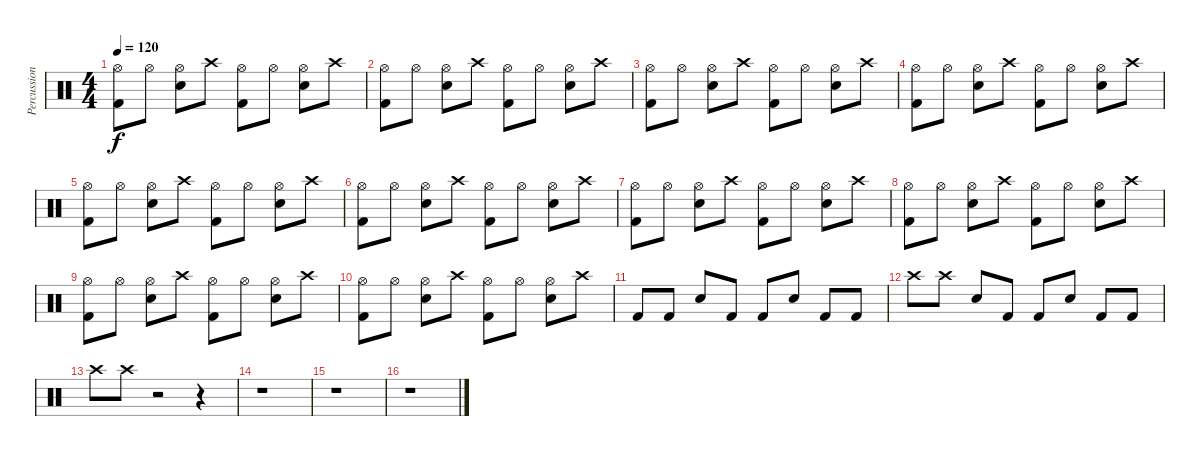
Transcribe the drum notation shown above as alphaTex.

\track ("Percussion" "Percussion") {instrument percussion}
\staff {score}
\articulation defaults
\ts (4 4)
\tempo 120
\clef neutral
\ks c
("Hi-Hat (open)" "Kick (hit) 2").8{dy f} "Hi-Hat (open)".8 ("Hi-Hat (open)" "Electric Snare (hit)").8 "Crash high (hit)".8 ("Hi-Hat (open)" "Kick (hit) 2").8 "Hi-Hat (open)".8 ("Hi-Hat (open)" "Electric Snare (hit)").8 "Crash high (hit)".8 |
("Hi-Hat (open)" "Kick (hit) 2").8 "Hi-Hat (open)".8 ("Hi-Hat (open)" "Electric Snare (hit)").8 "Crash high (hit)".8 ("Hi-Hat (open)" "Kick (hit) 2").8 "Hi-Hat (open)".8 ("Hi-Hat (open)" "Electric Snare (hit)").8 "Crash high (hit)".8 |
("Hi-Hat (open)" "Kick (hit) 2").8 "Hi-Hat (open)".8 ("Hi-Hat (open)" "Electric Snare (hit)").8 "Crash high (hit)".8 ("Hi-Hat (open)" "Kick (hit) 2").8 "Hi-Hat (open)".8 ("Hi-Hat (open)" "Electric Snare (hit)").8 "Crash high (hit)".8 |
("Hi-Hat (open)" "Kick (hit) 2").8 "Hi-Hat (open)".8 ("Hi-Hat (open)" "Electric Snare (hit)").8 "Crash high (hit)".8 ("Hi-Hat (open)" "Kick (hit) 2").8 "Hi-Hat (open)".8 ("Hi-Hat (open)" "Electric Snare (hit)").8 "Crash high (hit)".8 |
("Hi-Hat (open)" "Kick (hit) 2").8 "Hi-Hat (open)".8 ("Hi-Hat (open)" "Electric Snare (hit)").8 "Crash high (hit)".8 ("Hi-Hat (open)" "Kick (hit) 2").8 "Hi-Hat (open)".8 ("Hi-Hat (open)" "Electric Snare (hit)").8 "Crash high (hit)".8 |
("Hi-Hat (open)" "Kick (hit) 2").8 "Hi-Hat (open)".8 ("Hi-Hat (open)" "Electric Snare (hit)").8 "Crash high (hit)".8 ("Hi-Hat (open)" "Kick (hit) 2").8 "Hi-Hat (open)".8 ("Hi-Hat (open)" "Electric Snare (hit)").8 "Crash high (hit)".8 |
("Hi-Hat (open)" "Kick (hit) 2").8 "Hi-Hat (open)".8 ("Hi-Hat (open)" "Electric Snare (hit)").8 "Crash high (hit)".8 ("Hi-Hat (open)" "Kick (hit) 2").8 "Hi-Hat (open)".8 ("Hi-Hat (open)" "Electric Snare (hit)").8 "Crash high (hit)".8 |
("Hi-Hat (open)" "Kick (hit) 2").8 "Hi-Hat (open)".8 ("Hi-Hat (open)" "Electric Snare (hit)").8 "Crash high (hit)".8 ("Hi-Hat (open)" "Kick (hit) 2").8 "Hi-Hat (open)".8 ("Hi-Hat (open)" "Electric Snare (hit)").8 "Crash high (hit)".8 |
("Hi-Hat (open)" "Kick (hit) 2").8 "Hi-Hat (open)".8 ("Hi-Hat (open)" "Electric Snare (hit)").8 "Crash high (hit)".8 ("Hi-Hat (open)" "Kick (hit) 2").8 "Hi-Hat (open)".8 ("Hi-Hat (open)" "Electric Snare (hit)").8 "Crash high (hit)".8 |
("Hi-Hat (open)" "Kick (hit) 2").8 "Hi-Hat (open)".8 ("Hi-Hat (open)" "Electric Snare (hit)").8 "Crash high (hit)".8 ("Hi-Hat (open)" "Kick (hit) 2").8 "Hi-Hat (open)".8 ("Hi-Hat (open)" "Electric Snare (hit)").8 "Crash high (hit)".8 |
"Kick (hit) 2".8 "Kick (hit) 2".8 "Electric Snare (hit)".8 "Kick (hit) 2".8 "Kick (hit) 2".8 "Electric Snare (hit)".8 "Kick (hit) 2".8 "Kick (hit) 2".8 |
"Crash high (hit)".8 "Crash high (hit)".8 "Electric Snare (hit)".8 "Kick (hit) 2".8 "Kick (hit) 2".8 "Electric Snare (hit)".8 "Kick (hit) 2".8 "Kick (hit) 2".8 |
"Crash high (hit)".8 "Crash high (hit)".8 r.2 r.4 |
r.1 |
r.1 |
r.1
